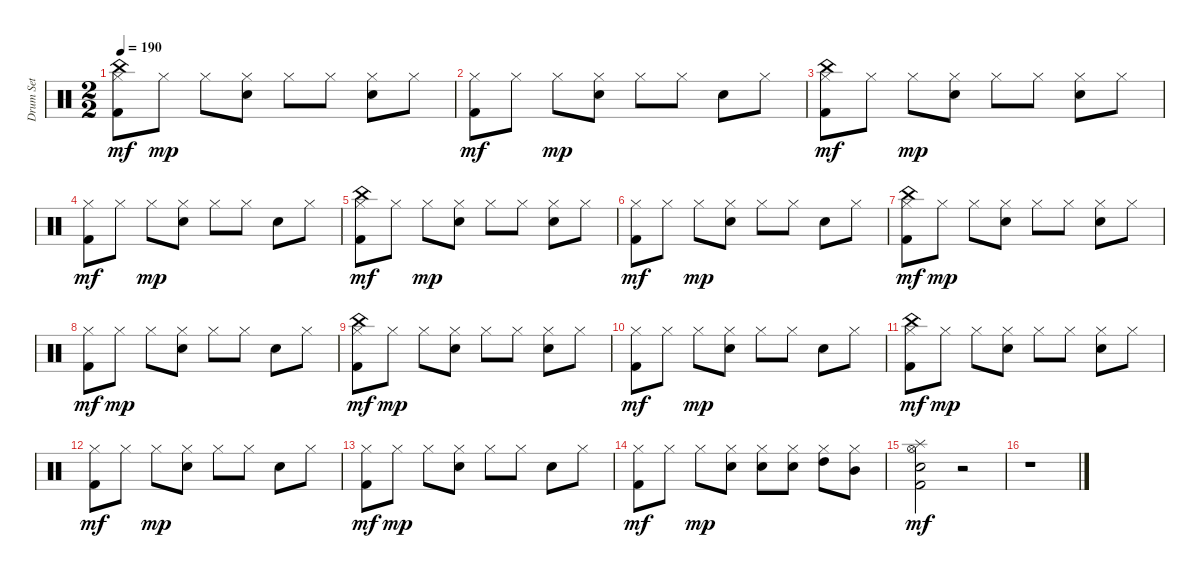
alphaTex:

\track ("Drum Set" "Drum Set") {instrument percussion}
\staff {score}
\articulation defaults
\ts (2 2)
\tempo 190
\clef neutral
\ks c
("Kick (hit) 2" "China (hit)" "Hi-Hat (closed)").8{dy mf} "Hi-Hat (closed)".8{dy mp} "Hi-Hat (closed)".8 ("Snare (hit) 2" "Hi-Hat (closed)").8 "Hi-Hat (closed)".8 "Hi-Hat (closed)".8 ("Snare (hit) 2" "Hi-Hat (closed)").8 "Hi-Hat (closed)".8 |
("Kick (hit) 2" "Hi-Hat (closed)").8{dy mf} "Hi-Hat (closed)".8 "Hi-Hat (closed)".8{dy mp} ("Snare (hit) 2" "Hi-Hat (closed)").8 "Hi-Hat (closed)".8 "Hi-Hat (closed)".8 "Snare (hit) 2".8 "Hi-Hat (closed)".8 |
("Kick (hit) 2" "China (hit)" "Hi-Hat (closed)").8{dy mf} "Hi-Hat (closed)".8 "Hi-Hat (closed)".8{dy mp} ("Snare (hit) 2" "Hi-Hat (closed)").8 "Hi-Hat (closed)".8 "Hi-Hat (closed)".8 ("Snare (hit) 2" "Hi-Hat (closed)").8 "Hi-Hat (closed)".8 |
("Kick (hit) 2" "Hi-Hat (closed)").8{dy mf} "Hi-Hat (closed)".8 "Hi-Hat (closed)".8{dy mp} ("Snare (hit) 2" "Hi-Hat (closed)").8 "Hi-Hat (closed)".8 "Hi-Hat (closed)".8 "Snare (hit) 2".8 "Hi-Hat (closed)".8 |
("Kick (hit) 2" "China (hit)" "Hi-Hat (closed)").8{dy mf} "Hi-Hat (closed)".8 "Hi-Hat (closed)".8{dy mp} ("Snare (hit) 2" "Hi-Hat (closed)").8 "Hi-Hat (closed)".8 "Hi-Hat (closed)".8 ("Snare (hit) 2" "Hi-Hat (closed)").8 "Hi-Hat (closed)".8 |
("Kick (hit) 2" "Hi-Hat (closed)").8{dy mf} "Hi-Hat (closed)".8 "Hi-Hat (closed)".8{dy mp} ("Snare (hit) 2" "Hi-Hat (closed)").8 "Hi-Hat (closed)".8 "Hi-Hat (closed)".8 "Snare (hit) 2".8 "Hi-Hat (closed)".8 |
("Kick (hit) 2" "China (hit)" "Hi-Hat (closed)").8{dy mf} "Hi-Hat (closed)".8{dy mp} "Hi-Hat (closed)".8 ("Snare (hit) 2" "Hi-Hat (closed)").8 "Hi-Hat (closed)".8 "Hi-Hat (closed)".8 ("Snare (hit) 2" "Hi-Hat (closed)").8 "Hi-Hat (closed)".8 |
("Kick (hit) 2" "Hi-Hat (closed)").8{dy mf} "Hi-Hat (closed)".8{dy mp} "Hi-Hat (closed)".8 ("Snare (hit) 2" "Hi-Hat (closed)").8 "Hi-Hat (closed)".8 "Hi-Hat (closed)".8 "Snare (hit) 2".8 "Hi-Hat (closed)".8 |
("Kick (hit) 2" "Hi-Hat (closed)" "China (hit)").8{dy mf} "Hi-Hat (closed)".8{dy mp} "Hi-Hat (closed)".8 ("Snare (hit) 2" "Hi-Hat (closed)").8 "Hi-Hat (closed)".8 "Hi-Hat (closed)".8 ("Snare (hit) 2" "Hi-Hat (closed)").8 "Hi-Hat (closed)".8 |
("Kick (hit) 2" "Hi-Hat (closed)").8{dy mf} "Hi-Hat (closed)".8 "Hi-Hat (closed)".8{dy mp} ("Snare (hit) 2" "Hi-Hat (closed)").8 "Hi-Hat (closed)".8 "Hi-Hat (closed)".8 "Snare (hit) 2".8 "Hi-Hat (closed)".8 |
("Kick (hit) 2" "China (hit)" "Hi-Hat (closed)").8{dy mf} "Hi-Hat (closed)".8{dy mp} "Hi-Hat (closed)".8 ("Snare (hit) 2" "Hi-Hat (closed)").8 "Hi-Hat (closed)".8 "Hi-Hat (closed)".8 ("Snare (hit) 2" "Hi-Hat (closed)").8 "Hi-Hat (closed)".8 |
("Kick (hit) 2" "Hi-Hat (closed)").8{dy mf} "Hi-Hat (closed)".8 "Hi-Hat (closed)".8{dy mp} ("Snare (hit) 2" "Hi-Hat (closed)").8 "Hi-Hat (closed)".8 "Hi-Hat (closed)".8 "Snare (hit) 2".8 "Hi-Hat (closed)".8 |
("Kick (hit) 2" "Hi-Hat (closed)").8{dy mf} "Hi-Hat (closed)".8{dy mp} "Hi-Hat (closed)".8 ("Snare (hit) 2" "Hi-Hat (closed)").8 "Hi-Hat (closed)".8 "Hi-Hat (closed)".8 "Snare (hit) 2".8 "Hi-Hat (closed)".8 |
("Kick (hit) 2" "Hi-Hat (closed)").8{dy mf} "Hi-Hat (closed)".8 "Hi-Hat (closed)".8{dy mp} ("Snare (hit) 2" "Hi-Hat (closed)").8 ("Hi-Hat (closed)" "Snare (hit) 2").8 ("Snare (hit) 2" "Hi-Hat (closed)").8 ("High Tom (hit)" "Hi-Hat (closed)").8 ("Mid Tom (hit)" "Hi-Hat (closed)").8 |
("Kick (hit) 2" "Snare (hit) 2" "Hi-Hat (open)" "Splash (hit)").2{dy mf} r.2 |
r.1
